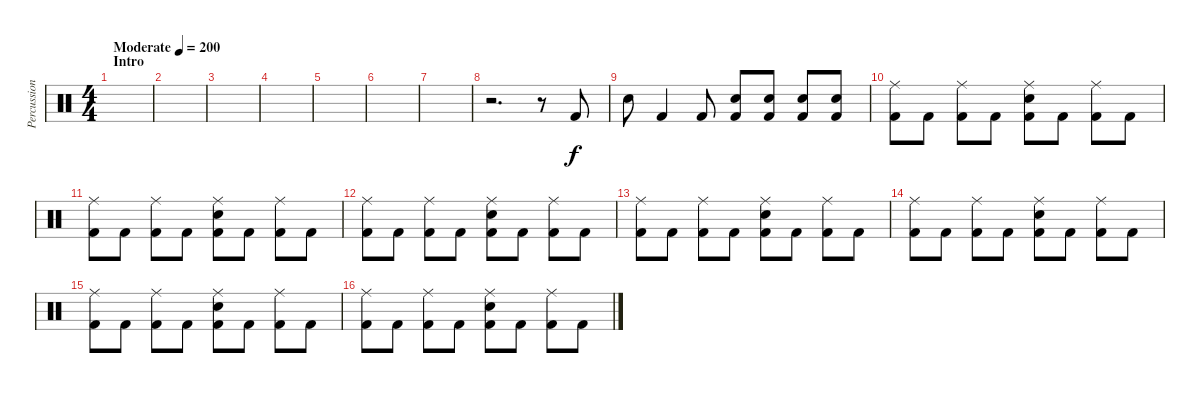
\track ("Percussion" "Percussion") {instrument percussion}
\staff {score}
\articulation defaults
\ts (4 4)
\section ("" "Intro")
\tempo (200 "Moderate")
\clef neutral
\ks c
|
|
|
|
|
|
|
r.2{d} r.8 "Kick (hit) 2".8 |
"Snare (hit) 2".8 "Kick (hit) 2".4 "Kick (hit) 2".8 ("Snare (hit) 2" "Kick (hit) 2").8 ("Snare (hit) 2" "Kick (hit) 2").8 ("Snare (hit) 2" "Kick (hit) 2").8 ("Snare (hit) 2" "Kick (hit) 2").8 |
("Ride (middle)" "Kick (hit) 2").8 "Kick (hit) 2".8 ("Ride (middle)" "Kick (hit) 2").8 "Kick (hit) 2".8 ("Ride (middle)" "Snare (hit) 2" "Kick (hit) 2").8 "Kick (hit) 2".8 ("Ride (middle)" "Kick (hit) 2").8 "Kick (hit) 2".8 |
("Ride (middle)" "Kick (hit) 2").8 "Kick (hit) 2".8 ("Ride (middle)" "Kick (hit) 2").8 "Kick (hit) 2".8 ("Ride (middle)" "Snare (hit) 2" "Kick (hit) 2").8 "Kick (hit) 2".8 ("Ride (middle)" "Kick (hit) 2").8 "Kick (hit) 2".8 |
("Ride (middle)" "Kick (hit) 2").8 "Kick (hit) 2".8 ("Ride (middle)" "Kick (hit) 2").8 "Kick (hit) 2".8 ("Ride (middle)" "Snare (hit) 2" "Kick (hit) 2").8 "Kick (hit) 2".8 ("Ride (middle)" "Kick (hit) 2").8 "Kick (hit) 2".8 |
("Ride (middle)" "Kick (hit) 2").8 "Kick (hit) 2".8 ("Ride (middle)" "Kick (hit) 2").8 "Kick (hit) 2".8 ("Ride (middle)" "Snare (hit) 2" "Kick (hit) 2").8 "Kick (hit) 2".8 ("Ride (middle)" "Kick (hit) 2").8 "Kick (hit) 2".8 |
("Ride (middle)" "Kick (hit) 2").8 "Kick (hit) 2".8 ("Ride (middle)" "Kick (hit) 2").8 "Kick (hit) 2".8 ("Ride (middle)" "Snare (hit) 2" "Kick (hit) 2").8 "Kick (hit) 2".8 ("Ride (middle)" "Kick (hit) 2").8 "Kick (hit) 2".8 |
("Ride (middle)" "Kick (hit) 2").8 "Kick (hit) 2".8 ("Ride (middle)" "Kick (hit) 2").8 "Kick (hit) 2".8 ("Ride (middle)" "Snare (hit) 2" "Kick (hit) 2").8 "Kick (hit) 2".8 ("Ride (middle)" "Kick (hit) 2").8 "Kick (hit) 2".8 |
("Ride (middle)" "Kick (hit) 2").8 "Kick (hit) 2".8 ("Ride (middle)" "Kick (hit) 2").8 "Kick (hit) 2".8 ("Ride (middle)" "Snare (hit) 2" "Kick (hit) 2").8 "Kick (hit) 2".8 ("Ride (middle)" "Kick (hit) 2").8 "Kick (hit) 2".8
